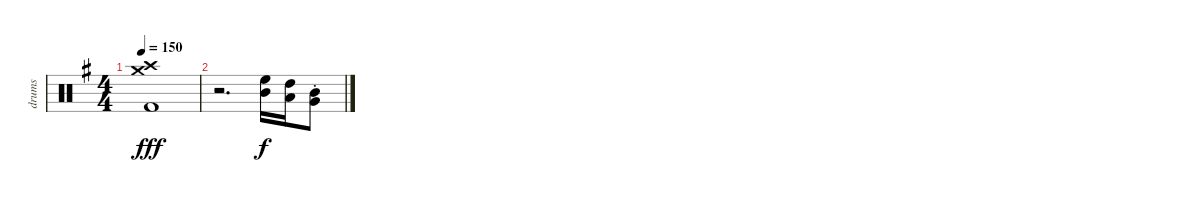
\track ("drums" "drums") {instrument percussion}
\staff {score}
\articulation defaults
\ts (4 4)
\tempo 150
\clef neutral
\ks eminor
("Crash high (hit)" "Crash medium (hit)" "Kick (hit) 2").1{dy fff} |
r.2{d} ("High Floor Tom (hit)" "Mid Tom (hit)").16{dy f} ("High Tom (hit)" "Low Tom (hit)").16 ("Mid Tom (hit)"{st} "Very Low Tom (hit)"{st}).8
